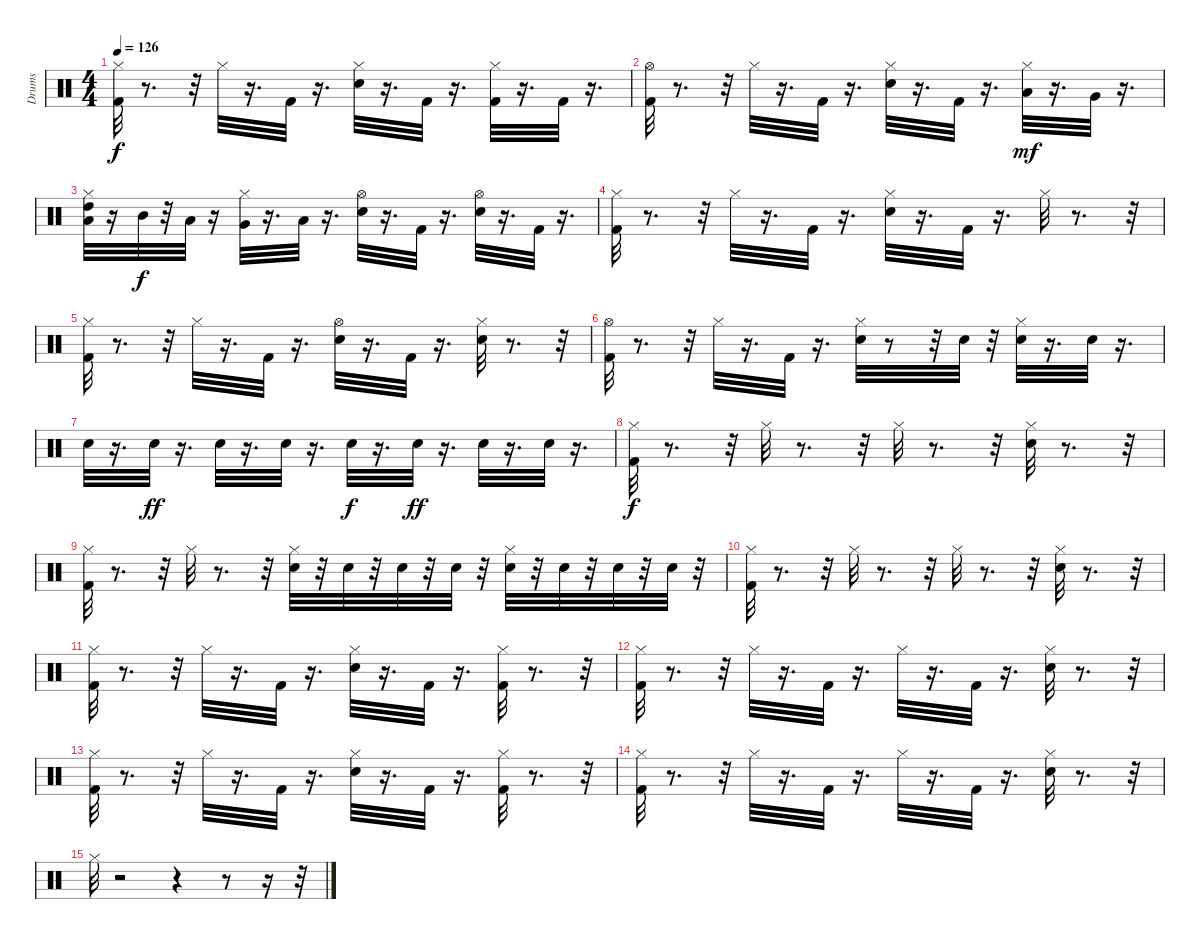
\track ("Drums" "Drums") {instrument percussion}
\staff {score}
\articulation defaults
\ts (4 4)
\tempo 126
\clef neutral
\ks c
("Kick (hit) 2" "Hi-Hat (closed)").32{dy f} r.8{d} r.32 "Hi-Hat (closed)".32 r.16{d} "Kick (hit) 2".32 r.16{d} ("Snare (hit) 2" "Hi-Hat (closed)").32 r.16{d} "Kick (hit) 2".32 r.16{d} ("Kick (hit) 2" "Hi-Hat (closed)").32 r.16{d} "Kick (hit) 2".32 r.16{d} |
("Kick (hit) 2" "Hi-Hat (open)").32 r.8{d} r.32 "Hi-Hat (closed)".32 r.16{d} "Kick (hit) 2".32 r.16{d} ("Snare (hit) 2" "Hi-Hat (closed)").32 r.16{d} "Kick (hit) 2".32 r.16{d} ("Hi-Hat (closed)" "Low Tom (hit)").32{dy mf} r.16{d} "Very Low Tom (hit)".32 r.16{d} |
("Low Floor Tom (hit)" "Hi-Hat (closed)" "High Tom (hit)").32 r.16 "Mid Tom (hit)".32{dy f} r.32 "Low Tom (hit)".32 r.16 ("Hi-Hat (closed)" "Very Low Tom (hit)").32 r.16{d} "Low Floor Tom (hit)".32 r.16{d} ("Snare (hit) 2" "Hi-Hat (open)").32 r.16{d} "Kick (hit) 2".32 r.16{d} ("Snare (hit) 2" "Hi-Hat (open)").32 r.16{d} "Kick (hit) 2".32 r.16{d} |
("Kick (hit) 2" "Hi-Hat (closed)").32 r.8{d} r.32 "Hi-Hat (closed)".32 r.16{d} "Kick (hit) 2".32 r.16{d} ("Snare (hit) 2" "Hi-Hat (closed)").32 r.16{d} "Kick (hit) 2".32 r.16{d} "Hi-Hat (closed)".32 r.8{d} r.32 |
("Kick (hit) 2" "Hi-Hat (closed)").32 r.8{d} r.32 "Hi-Hat (closed)".32 r.16{d} "Kick (hit) 2".32 r.16{d} ("Snare (hit) 2" "Hi-Hat (open)").32 r.16{d} "Kick (hit) 2".32 r.16{d} ("Snare (hit) 2" "Hi-Hat (closed)").32 r.8{d} r.32 |
("Kick (hit) 2" "Hi-Hat (open)").32 r.8{d} r.32 "Hi-Hat (closed)".32 r.16{d} "Kick (hit) 2".32 r.16{d} ("Snare (hit) 2" "Hi-Hat (closed)").32 r.8 r.32 "Snare (hit) 2".32 r.32 ("Snare (hit) 2" "Hi-Hat (closed)").32 r.16{d} "Snare (hit) 2".32 r.16{d} |
"Snare (hit) 2".32 r.16{d} "Snare (hit) 2".32{dy ff} r.16{d} "Snare (hit) 2".32 r.16{d} "Snare (hit) 2".32 r.16{d} "Snare (hit) 2".32{dy f} r.16{d} "Snare (hit) 2".32{dy ff} r.16{d} "Snare (hit) 2".32 r.16{d} "Snare (hit) 2".32 r.16{d} |
("Kick (hit) 2" "Hi-Hat (closed)").32{dy f} r.8{d} r.32 "Hi-Hat (closed)".32 r.8{d} r.32 "Hi-Hat (closed)".32 r.8{d} r.32 ("Snare (hit) 2" "Hi-Hat (closed)").32 r.8{d} r.32 |
("Kick (hit) 2" "Hi-Hat (closed)").32 r.8{d} r.32 "Hi-Hat (closed)".32 r.8{d} r.32 ("Snare (hit) 2" "Hi-Hat (closed)").32 r.32 "Snare (hit) 2".32 r.32 "Snare (hit) 2".32 r.32 "Snare (hit) 2".32 r.32 ("Snare (hit) 2" "Hi-Hat (closed)").32 r.32 "Snare (hit) 2".32 r.32 "Snare (hit) 2".32 r.32 "Snare (hit) 2".32 r.32 |
("Kick (hit) 2" "Hi-Hat (closed)").32 r.8{d} r.32 "Hi-Hat (closed)".32 r.8{d} r.32 "Hi-Hat (closed)".32 r.8{d} r.32 ("Snare (hit) 2" "Hi-Hat (closed)").32 r.8{d} r.32 |
("Kick (hit) 2" "Hi-Hat (closed)").32 r.8{d} r.32 "Hi-Hat (closed)".32 r.16{d} "Kick (hit) 2".32 r.16{d} ("Snare (hit) 2" "Hi-Hat (closed)").32 r.16{d} "Kick (hit) 2".32 r.16{d} ("Kick (hit) 2" "Hi-Hat (closed)").32 r.8{d} r.32 |
("Kick (hit) 2" "Hi-Hat (closed)").32 r.8{d} r.32 "Hi-Hat (closed)".32 r.16{d} "Kick (hit) 2".32 r.16{d} "Hi-Hat (closed)".32 r.16{d} "Kick (hit) 2".32 r.16{d} ("Snare (hit) 2" "Hi-Hat (closed)").32 r.8{d} r.32 |
("Kick (hit) 2" "Hi-Hat (closed)").32 r.8{d} r.32 "Hi-Hat (closed)".32 r.16{d} "Kick (hit) 2".32 r.16{d} ("Snare (hit) 2" "Hi-Hat (closed)").32 r.16{d} "Kick (hit) 2".32 r.16{d} ("Kick (hit) 2" "Hi-Hat (closed)").32 r.8{d} r.32 |
("Kick (hit) 2" "Hi-Hat (closed)").32 r.8{d} r.32 "Hi-Hat (closed)".32 r.16{d} "Kick (hit) 2".32 r.16{d} "Hi-Hat (closed)".32 r.16{d} "Kick (hit) 2".32 r.16{d} ("Snare (hit) 2" "Hi-Hat (closed)").32 r.8{d} r.32 |
"Hi-Hat (closed)".32 r.2 r.4 r.8 r.16 r.32
